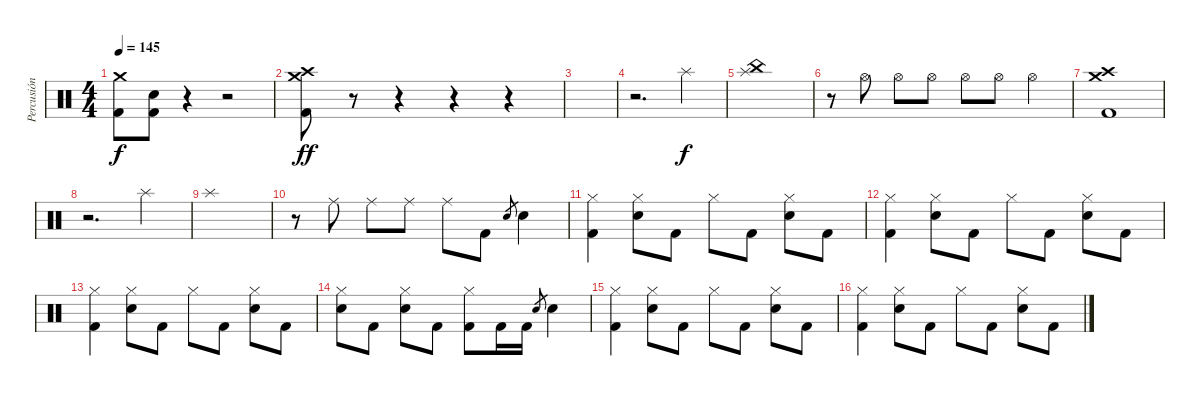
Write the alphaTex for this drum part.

\track ("Percusión" "Percusión") {instrument percussion}
\staff {score}
\articulation defaults
\ts (4 4)
\tempo 145
\clef neutral
\ks c
("Crash medium (hit)" "Kick (hit) 2").8{dy f} ("Snare (hit) 2" "Kick (hit) 2").8 r.4 r.2 |
("Crash medium (hit)" "Crash high (hit)" "Kick (hit) 2").8{dy ff} r.8 r.4 r.4 r.4 |
|
r.2{d} "Splash (hit)".4{dy f} |
("Splash (hit)" "China (hit)").1 |
r.8 "Hi-Hat (open)".8 "Hi-Hat (open)".8 "Hi-Hat (open)".8 "Hi-Hat (open)".8 "Hi-Hat (open)".8 "Hi-Hat (open)".4 |
("Crash medium (hit)" "Crash high (hit)" "Kick (hit) 2").1 |
r.2{d} "Splash (hit)".4 |
"Splash (hit)".1 |
r.8 "Ride (middle)".8 "Ride (middle)".8 "Ride (middle)".8 "Ride (middle)".8 "Kick (hit) 2".8 "Snare (hit) 2".8{gr} "Snare (hit) 2".4 |
("Hi-Hat (closed)" "Kick (hit) 2").4 ("Hi-Hat (closed)" "Snare (hit) 2").8 "Kick (hit) 2".8 "Hi-Hat (closed)".8 "Kick (hit) 2".8 ("Hi-Hat (closed)" "Snare (hit) 2").8 "Kick (hit) 2".8 |
("Hi-Hat (closed)" "Kick (hit) 2").4 ("Hi-Hat (closed)" "Snare (hit) 2").8 "Kick (hit) 2".8 "Hi-Hat (closed)".8 "Kick (hit) 2".8 ("Hi-Hat (closed)" "Snare (hit) 2").8 "Kick (hit) 2".8 |
("Hi-Hat (closed)" "Kick (hit) 2").4 ("Hi-Hat (closed)" "Snare (hit) 2").8 "Kick (hit) 2".8 "Hi-Hat (closed)".8 "Kick (hit) 2".8 ("Hi-Hat (closed)" "Snare (hit) 2").8 "Kick (hit) 2".8 |
("Hi-Hat (closed)" "Snare (hit) 2").8 "Kick (hit) 2".8 ("Hi-Hat (closed)" "Snare (hit) 2").8 "Kick (hit) 2".8 ("Hi-Hat (closed)" "Kick (hit) 2").8 "Kick (hit) 2".16 "Kick (hit) 2".16 "Snare (hit) 2".8{gr} "Snare (hit) 2".4 |
("Hi-Hat (closed)" "Kick (hit) 2").4 ("Hi-Hat (closed)" "Snare (hit) 2").8 "Kick (hit) 2".8 "Hi-Hat (closed)".8 "Kick (hit) 2".8 ("Hi-Hat (closed)" "Snare (hit) 2").8 "Kick (hit) 2".8 |
("Hi-Hat (closed)" "Kick (hit) 2").4 ("Hi-Hat (closed)" "Snare (hit) 2").8 "Kick (hit) 2".8 "Hi-Hat (closed)".8 "Kick (hit) 2".8 ("Hi-Hat (closed)" "Snare (hit) 2").8 "Kick (hit) 2".8
